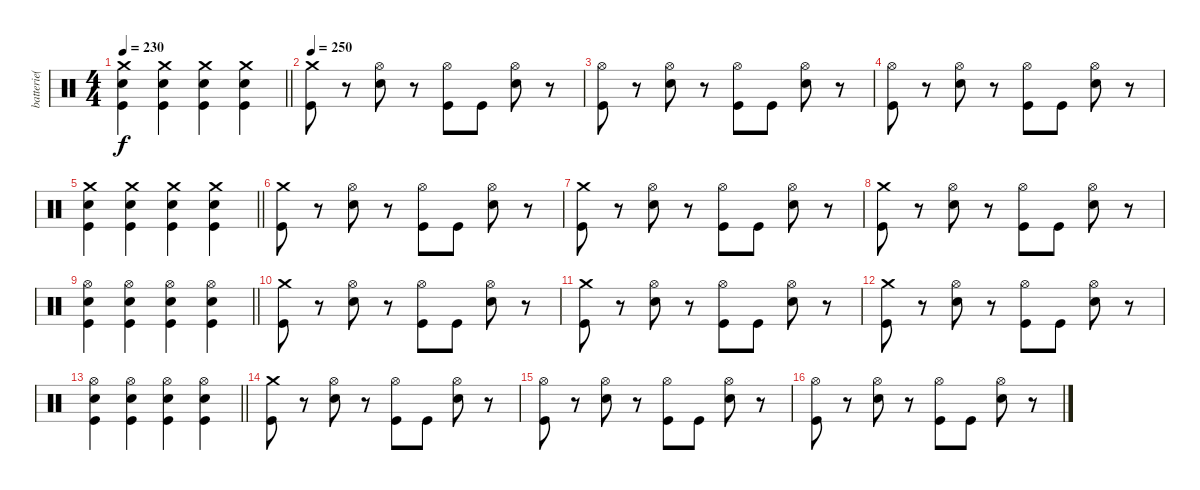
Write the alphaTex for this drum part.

\track ("batterie( Yureesh )" "batterie( ") {instrument percussion}
\staff {score}
\articulation defaults
\ts (4 4)
\tempo 230
\clef neutral
\barLineRight lightlight
\ks c
("Crash medium (hit)" "Snare (hit) 2" "Kick (hit)").4{dy f} ("Crash medium (hit)" "Snare (hit) 2" "Kick (hit)").4 ("Crash medium (hit)" "Snare (hit) 2" "Kick (hit)").4 ("Crash medium (hit)" "Snare (hit) 2" "Kick (hit)").4 |
\tempo 250
("Crash medium (hit)" "Kick (hit)").8 r.8 ("Hi-Hat (open)" "Snare (hit) 2").8 r.8 ("Hi-Hat (open)" "Kick (hit)").8 "Kick (hit)".8 ("Hi-Hat (open)" "Snare (hit) 2").8 r.8 |
("Hi-Hat (open)" "Kick (hit)").8 r.8 ("Hi-Hat (open)" "Snare (hit) 2").8 r.8 ("Hi-Hat (open)" "Kick (hit)").8 "Kick (hit)".8 ("Hi-Hat (open)" "Snare (hit) 2").8 r.8 |
("Hi-Hat (open)" "Kick (hit)").8 r.8 ("Hi-Hat (open)" "Snare (hit) 2").8 r.8 ("Hi-Hat (open)" "Kick (hit)").8 "Kick (hit)".8 ("Hi-Hat (open)" "Snare (hit) 2").8 r.8 |
\barLineRight lightlight
("Crash medium (hit)" "Snare (hit) 2" "Kick (hit)").4 ("Crash medium (hit)" "Snare (hit) 2" "Kick (hit)").4 ("Crash medium (hit)" "Snare (hit) 2" "Kick (hit)").4 ("Crash medium (hit)" "Snare (hit) 2" "Kick (hit)").4 |
("Crash medium (hit)" "Kick (hit)").8 r.8 ("Hi-Hat (open)" "Snare (hit) 2").8 r.8 ("Hi-Hat (open)" "Kick (hit)").8 "Kick (hit)".8 ("Hi-Hat (open)" "Snare (hit) 2").8 r.8 |
("Crash medium (hit)" "Kick (hit)").8 r.8 ("Hi-Hat (open)" "Snare (hit) 2").8 r.8 ("Hi-Hat (open)" "Kick (hit)").8 "Kick (hit)".8 ("Hi-Hat (open)" "Snare (hit) 2").8 r.8 |
("Crash medium (hit)" "Kick (hit)").8 r.8 ("Hi-Hat (open)" "Snare (hit) 2").8 r.8 ("Hi-Hat (open)" "Kick (hit)").8 "Kick (hit)".8 ("Hi-Hat (open)" "Snare (hit) 2").8 r.8 |
\barLineRight lightlight
("Hi-Hat (open)" "Snare (hit) 2" "Kick (hit)").4 ("Hi-Hat (open)" "Snare (hit) 2" "Kick (hit)").4 ("Hi-Hat (open)" "Snare (hit) 2" "Kick (hit)").4 ("Hi-Hat (open)" "Snare (hit) 2" "Kick (hit)").4 |
("Crash medium (hit)" "Kick (hit)").8 r.8 ("Hi-Hat (open)" "Snare (hit) 2").8 r.8 ("Hi-Hat (open)" "Kick (hit)").8 "Kick (hit)".8 ("Hi-Hat (open)" "Snare (hit) 2").8 r.8 |
("Crash medium (hit)" "Kick (hit)").8 r.8 ("Hi-Hat (open)" "Snare (hit) 2").8 r.8 ("Hi-Hat (open)" "Kick (hit)").8 "Kick (hit)".8 ("Hi-Hat (open)" "Snare (hit) 2").8 r.8 |
("Crash medium (hit)" "Kick (hit)").8 r.8 ("Hi-Hat (open)" "Snare (hit) 2").8 r.8 ("Hi-Hat (open)" "Kick (hit)").8 "Kick (hit)".8 ("Hi-Hat (open)" "Snare (hit) 2").8 r.8 |
\barLineRight lightlight
("Hi-Hat (open)" "Snare (hit) 2" "Kick (hit)").4 ("Hi-Hat (open)" "Snare (hit) 2" "Kick (hit)").4 ("Hi-Hat (open)" "Snare (hit) 2" "Kick (hit)").4 ("Hi-Hat (open)" "Snare (hit) 2" "Kick (hit)").4 |
("Crash medium (hit)" "Kick (hit)").8 r.8 ("Hi-Hat (open)" "Snare (hit) 2").8 r.8 ("Hi-Hat (open)" "Kick (hit)").8 "Kick (hit)".8 ("Hi-Hat (open)" "Snare (hit) 2").8 r.8 |
("Hi-Hat (open)" "Kick (hit)").8 r.8 ("Hi-Hat (open)" "Snare (hit) 2").8 r.8 ("Hi-Hat (open)" "Kick (hit)").8 "Kick (hit)".8 ("Hi-Hat (open)" "Snare (hit) 2").8 r.8 |
("Hi-Hat (open)" "Kick (hit)").8 r.8 ("Hi-Hat (open)" "Snare (hit) 2").8 r.8 ("Hi-Hat (open)" "Kick (hit)").8 "Kick (hit)".8 ("Hi-Hat (open)" "Snare (hit) 2").8 r.8
